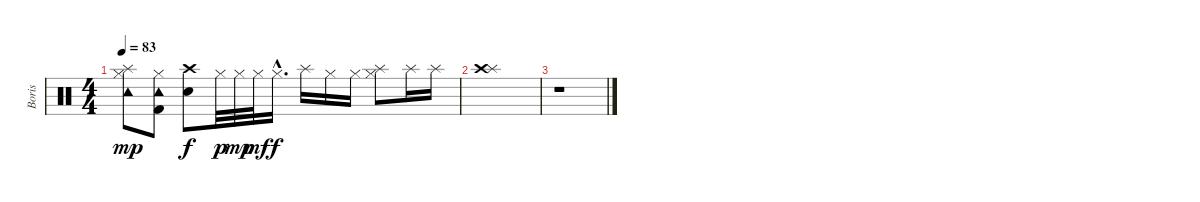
\track ("Boris" "Boris") {instrument percussion}
\staff {score}
\articulation defaults
\ts (4 4)
\tempo 83
\clef neutral
\ks c
("Splash (hit)" "Tambourine (hit)" "Hi-Hat (closed)").8{dy mp} ("Kick (hit) 2" "Tambourine (hit)" "Hi-Hat (closed)").8 ("Electric Snare (hit)" "Crash high (hit)").8{dy f} "Hi-Hat (closed)".32{dy p} "Hi-Hat (closed)".32{dy mp} "Hi-Hat (closed)".32{dy mf} "Hi-Hat (closed)"{hac}.16{d dy f} "Splash (hit)".16 "Hi-Hat (closed)".16 "Hi-Hat (closed)".16 ("Splash (hit)" "Hi-Hat (closed)").8 "Splash (hit)".16 "Splash (hit)".16 |
("Splash (hit)" "Crash high (hit)").1 |
r.1
